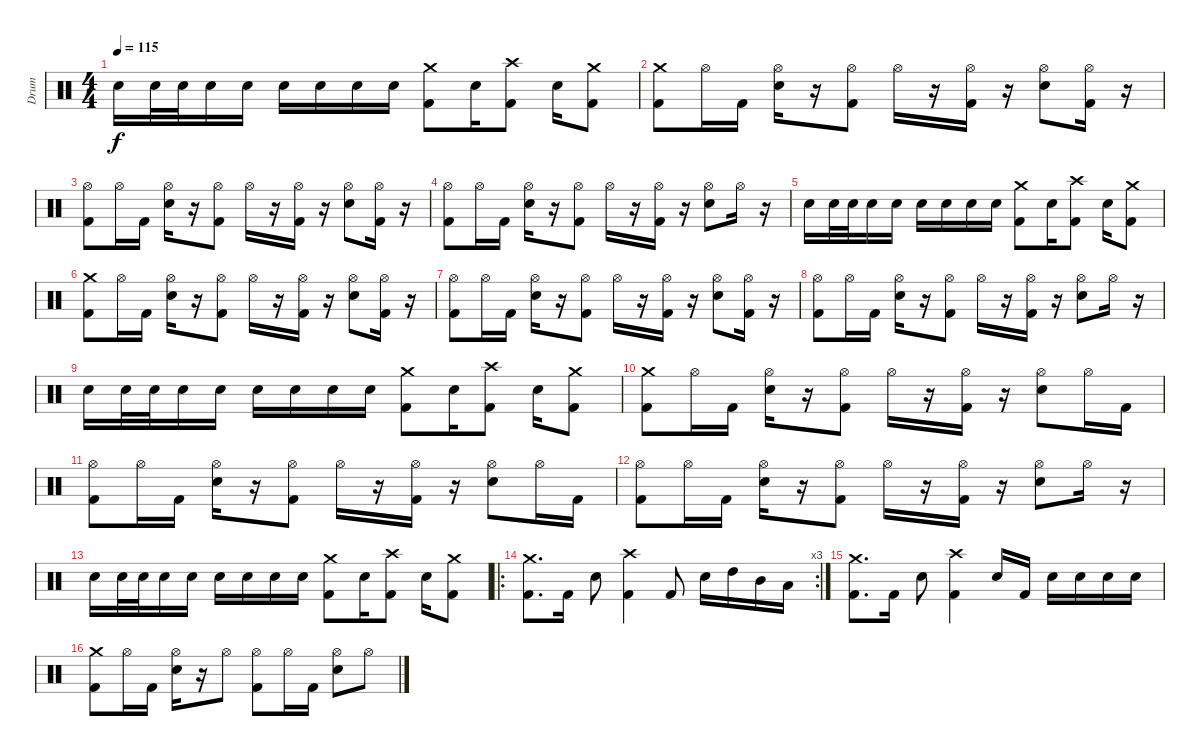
\track ("Drum" "Drum") {instrument percussion}
\staff {score}
\articulation defaults
\ts (4 4)
\tempo 115
\clef neutral
\ks c "Electric Snare (hit)".16{dy f} "Electric Snare (hit)".32 "Electric Snare (hit)".32 "Electric Snare (hit)".16 "Electric Snare (hit)".16 "Electric Snare (hit)".16 "Electric Snare (hit)".16 "Electric Snare (hit)".16 "Electric Snare (hit)".16
("Crash medium (hit)" "Kick (hit) 2").8 "Electric Snare (hit)".16 ("Crash high (hit)" "Kick (hit) 2").8 "Electric Snare (hit)".16 ("Crash medium (hit)" "Kick (hit) 2").8 |
("Crash medium (hit)" "Kick (hit) 2").8 "Hi-Hat (open)".16 "Kick (hit) 2".16 ("Hi-Hat (open)" "Electric Snare (hit)").16 r.16 ("Hi-Hat (open)" "Kick (hit) 2").8 "Hi-Hat (open)".16 r.16 ("Hi-Hat (open)" "Kick (hit) 2").16 r.16 ("Hi-Hat (open)" "Electric Snare (hit)").8 ("Hi-Hat (open)" "Kick (hit) 2").16 r.16 |
("Hi-Hat (open)" "Kick (hit) 2").8 "Hi-Hat (open)".16 "Kick (hit) 2".16 ("Hi-Hat (open)" "Electric Snare (hit)").16 r.16 ("Hi-Hat (open)" "Kick (hit) 2").8 "Hi-Hat (open)".16 r.16 ("Hi-Hat (open)" "Kick (hit) 2").16 r.16 ("Hi-Hat (open)" "Electric Snare (hit)").8 ("Hi-Hat (open)" "Kick (hit) 2").16 r.16 |
("Hi-Hat (open)" "Kick (hit) 2").8 "Hi-Hat (open)".16 "Kick (hit) 2".16 ("Hi-Hat (open)" "Electric Snare (hit)").16 r.16 ("Hi-Hat (open)" "Kick (hit) 2").8 "Hi-Hat (open)".16 r.16 ("Hi-Hat (open)" "Kick (hit) 2").16 r.16 ("Hi-Hat (open)" "Electric Snare (hit)").8 "Hi-Hat (open)".16 r.16 |
"Electric Snare (hit)".16 "Electric Snare (hit)".32 "Electric Snare (hit)".32 "Electric Snare (hit)".16 "Electric Snare (hit)".16 "Electric Snare (hit)".16 "Electric Snare (hit)".16 "Electric Snare (hit)".16 "Electric Snare (hit)".16 ("Crash medium (hit)" "Kick (hit) 2").8 "Electric Snare (hit)".16 ("Crash high (hit)" "Kick (hit) 2").8 "Electric Snare (hit)".16 ("Crash medium (hit)" "Kick (hit) 2").8 |
("Crash medium (hit)" "Kick (hit) 2").8 "Hi-Hat (open)".16 "Kick (hit) 2".16 ("Hi-Hat (open)" "Electric Snare (hit)").16 r.16 ("Hi-Hat (open)" "Kick (hit) 2").8 "Hi-Hat (open)".16 r.16 ("Hi-Hat (open)" "Kick (hit) 2").16 r.16 ("Hi-Hat (open)" "Electric Snare (hit)").8 ("Hi-Hat (open)" "Kick (hit) 2").16 r.16 |
("Hi-Hat (open)" "Kick (hit) 2").8 "Hi-Hat (open)".16 "Kick (hit) 2".16 ("Hi-Hat (open)" "Electric Snare (hit)").16 r.16 ("Hi-Hat (open)" "Kick (hit) 2").8 "Hi-Hat (open)".16 r.16 ("Hi-Hat (open)" "Kick (hit) 2").16 r.16 ("Hi-Hat (open)" "Electric Snare (hit)").8 ("Hi-Hat (open)" "Kick (hit) 2").16 r.16 |
("Hi-Hat (open)" "Kick (hit) 2").8 "Hi-Hat (open)".16 "Kick (hit) 2".16 ("Hi-Hat (open)" "Electric Snare (hit)").16 r.16 ("Hi-Hat (open)" "Kick (hit) 2").8 "Hi-Hat (open)".16 r.16 ("Hi-Hat (open)" "Kick (hit) 2").16 r.16 ("Hi-Hat (open)" "Electric Snare (hit)").8 "Hi-Hat (open)".16 r.16 |
"Electric Snare (hit)".16 "Electric Snare (hit)".32 "Electric Snare (hit)".32 "Electric Snare (hit)".16 "Electric Snare (hit)".16 "Electric Snare (hit)".16 "Electric Snare (hit)".16 "Electric Snare (hit)".16 "Electric Snare (hit)".16 ("Crash medium (hit)" "Kick (hit) 2").8 "Electric Snare (hit)".16 ("Crash high (hit)" "Kick (hit) 2").8 "Electric Snare (hit)".16 ("Crash medium (hit)" "Kick (hit) 2").8 |
("Crash medium (hit)" "Kick (hit) 2").8 "Hi-Hat (open)".16 "Kick (hit) 2".16 ("Hi-Hat (open)" "Electric Snare (hit)").16 r.16 ("Hi-Hat (open)" "Kick (hit) 2").8 "Hi-Hat (open)".16 r.16 ("Hi-Hat (open)" "Kick (hit) 2").16 r.16 ("Hi-Hat (open)" "Electric Snare (hit)").8 "Hi-Hat (open)".16 "Kick (hit) 2".16 |
("Hi-Hat (open)" "Kick (hit) 2").8 "Hi-Hat (open)".16 "Kick (hit) 2".16 ("Hi-Hat (open)" "Electric Snare (hit)").16 r.16 ("Hi-Hat (open)" "Kick (hit) 2").8 "Hi-Hat (open)".16 r.16 ("Hi-Hat (open)" "Kick (hit) 2").16 r.16 ("Hi-Hat (open)" "Electric Snare (hit)").8 "Hi-Hat (open)".16 "Kick (hit) 2".16 |
("Hi-Hat (open)" "Kick (hit) 2").8 "Hi-Hat (open)".16 "Kick (hit) 2".16 ("Hi-Hat (open)" "Electric Snare (hit)").16 r.16 ("Hi-Hat (open)" "Kick (hit) 2").8 "Hi-Hat (open)".16 r.16 ("Hi-Hat (open)" "Kick (hit) 2").16 r.16 ("Hi-Hat (open)" "Electric Snare (hit)").8 "Hi-Hat (open)".16 r.16 |
"Electric Snare (hit)".16 "Electric Snare (hit)".32 "Electric Snare (hit)".32 "Electric Snare (hit)".16 "Electric Snare (hit)".16 "Electric Snare (hit)".16 "Electric Snare (hit)".16 "Electric Snare (hit)".16 "Electric Snare (hit)".16 ("Crash medium (hit)" "Kick (hit) 2").8 "Electric Snare (hit)".16 ("Crash high (hit)" "Kick (hit) 2").8 "Electric Snare (hit)".16 ("Crash medium (hit)" "Kick (hit) 2").8 |
\ro
\rc 3
("Crash medium (hit)" "Kick (hit) 2").8{d} "Kick (hit) 2".16 "Snare (hit) 2".8 ("Crash high (hit)" "Kick (hit) 2").4 "Kick (hit) 2".8 "Electric Snare (hit)".16 "High Tom (hit)".16 "Mid Tom (hit)".16 "Low Tom (hit)".16 |
("Crash medium (hit)" "Kick (hit) 2").8{d} "Kick (hit) 2".16 "Snare (hit) 2".8 ("Crash high (hit)" "Kick (hit) 2").4 "Electric Snare (hit)".16 "Kick (hit) 2".16 "Electric Snare (hit)".16 "Electric Snare (hit)".16 "Electric Snare (hit)".16 "Electric Snare (hit)".16 |
("Crash medium (hit)" "Kick (hit) 2").8 "Hi-Hat (open)".16 "Kick (hit) 2".16 ("Hi-Hat (open)" "Electric Snare (hit)").16 r.16 "Hi-Hat (open)".8 ("Hi-Hat (open)" "Kick (hit) 2").8 "Hi-Hat (open)".16 "Kick (hit) 2".16 ("Hi-Hat (open)" "Electric Snare (hit)").8 "Hi-Hat (open)".8
